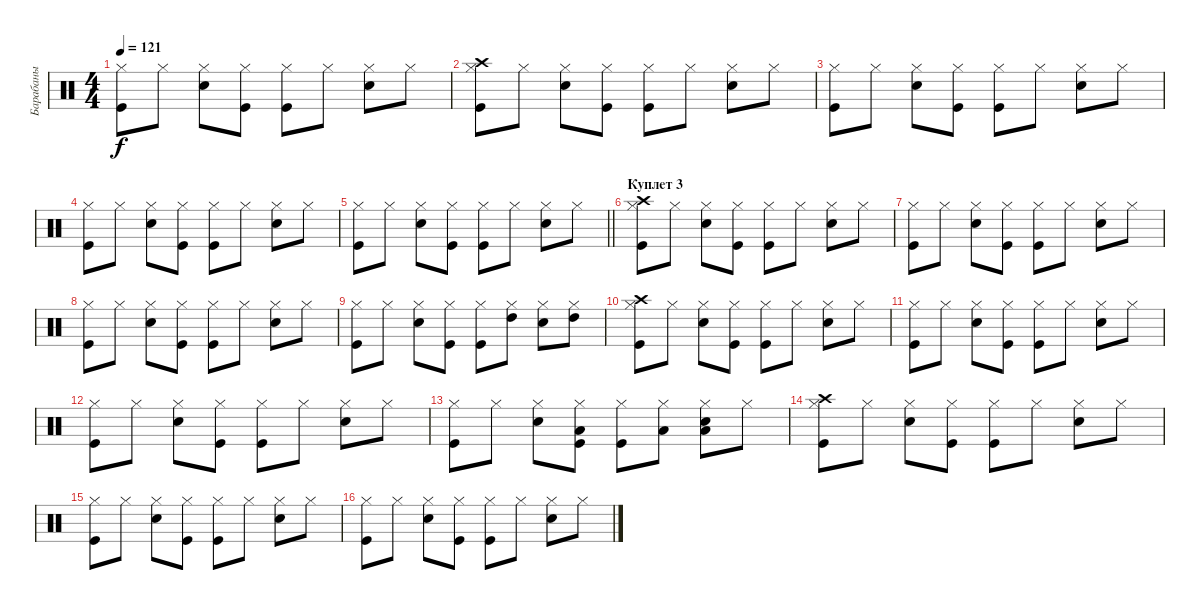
\track ("Барабаны" "Барабаны") {instrument percussion}
\staff {score}
\articulation defaults
\ts (4 4)
\tempo 121
\clef neutral
\ks c
("Kick (hit)" "Hi-Hat (closed)").8{dy f} "Hi-Hat (closed)".8 ("Snare (hit) 2" "Hi-Hat (closed)").8 ("Kick (hit)" "Hi-Hat (closed)").8 ("Kick (hit)" "Hi-Hat (closed)").8 "Hi-Hat (closed)".8 ("Snare (hit) 2" "Hi-Hat (closed)").8 "Hi-Hat (closed)".8 |
("Kick (hit)" "Hi-Hat (closed)" "Crash high (hit)").8 "Hi-Hat (closed)".8 ("Snare (hit) 2" "Hi-Hat (closed)").8 ("Kick (hit)" "Hi-Hat (closed)").8 ("Kick (hit)" "Hi-Hat (closed)").8 "Hi-Hat (closed)".8 ("Snare (hit) 2" "Hi-Hat (closed)").8 "Hi-Hat (closed)".8 |
("Kick (hit)" "Hi-Hat (closed)").8 "Hi-Hat (closed)".8 ("Snare (hit) 2" "Hi-Hat (closed)").8 ("Kick (hit)" "Hi-Hat (closed)").8 ("Kick (hit)" "Hi-Hat (closed)").8 "Hi-Hat (closed)".8 ("Snare (hit) 2" "Hi-Hat (closed)").8 "Hi-Hat (closed)".8 |
("Kick (hit)" "Hi-Hat (closed)").8 "Hi-Hat (closed)".8 ("Snare (hit) 2" "Hi-Hat (closed)").8 ("Kick (hit)" "Hi-Hat (closed)").8 ("Kick (hit)" "Hi-Hat (closed)").8 "Hi-Hat (closed)".8 ("Snare (hit) 2" "Hi-Hat (closed)").8 "Hi-Hat (closed)".8 |
\barLineRight lightlight
("Kick (hit)" "Hi-Hat (closed)").8 "Hi-Hat (closed)".8 ("Snare (hit) 2" "Hi-Hat (closed)").8 ("Kick (hit)" "Hi-Hat (closed)").8 ("Kick (hit)" "Hi-Hat (closed)").8 "Hi-Hat (closed)".8 ("Snare (hit) 2" "Hi-Hat (closed)").8 "Hi-Hat (closed)".8 |
\section ("" "Куплет 3")
("Kick (hit)" "Hi-Hat (closed)" "Crash high (hit)").8 "Hi-Hat (closed)".8 ("Snare (hit) 2" "Hi-Hat (closed)").8 ("Kick (hit)" "Hi-Hat (closed)").8 ("Kick (hit)" "Hi-Hat (closed)").8 "Hi-Hat (closed)".8 ("Snare (hit) 2" "Hi-Hat (closed)").8 "Hi-Hat (closed)".8 |
("Kick (hit)" "Hi-Hat (closed)").8 "Hi-Hat (closed)".8 ("Snare (hit) 2" "Hi-Hat (closed)").8 ("Kick (hit)" "Hi-Hat (closed)").8 ("Kick (hit)" "Hi-Hat (closed)").8 "Hi-Hat (closed)".8 ("Snare (hit) 2" "Hi-Hat (closed)").8 "Hi-Hat (closed)".8 |
("Kick (hit)" "Hi-Hat (closed)").8 "Hi-Hat (closed)".8 ("Snare (hit) 2" "Hi-Hat (closed)").8 ("Kick (hit)" "Hi-Hat (closed)").8 ("Kick (hit)" "Hi-Hat (closed)").8 "Hi-Hat (closed)".8 ("Snare (hit) 2" "Hi-Hat (closed)").8 "Hi-Hat (closed)".8 |
("Kick (hit)" "Hi-Hat (closed)").8 "Hi-Hat (closed)".8 ("Snare (hit) 2" "Hi-Hat (closed)").8 ("Kick (hit)" "Hi-Hat (closed)").8 ("Kick (hit)" "Hi-Hat (closed)").8 ("Hi-Hat (closed)" "High Tom (hit)").8 ("Snare (hit) 2" "Hi-Hat (closed)").8 ("Hi-Hat (closed)" "High Tom (hit)").8 |
("Kick (hit)" "Hi-Hat (closed)" "Crash high (hit)").8 "Hi-Hat (closed)".8 ("Snare (hit) 2" "Hi-Hat (closed)").8 ("Kick (hit)" "Hi-Hat (closed)").8 ("Kick (hit)" "Hi-Hat (closed)").8 "Hi-Hat (closed)".8 ("Snare (hit) 2" "Hi-Hat (closed)").8 "Hi-Hat (closed)".8 |
("Kick (hit)" "Hi-Hat (closed)").8 "Hi-Hat (closed)".8 ("Snare (hit) 2" "Hi-Hat (closed)").8 ("Kick (hit)" "Hi-Hat (closed)").8 ("Kick (hit)" "Hi-Hat (closed)").8 "Hi-Hat (closed)".8 ("Snare (hit) 2" "Hi-Hat (closed)").8 "Hi-Hat (closed)".8 |
("Kick (hit)" "Hi-Hat (closed)").8 "Hi-Hat (closed)".8 ("Snare (hit) 2" "Hi-Hat (closed)").8 ("Kick (hit)" "Hi-Hat (closed)").8 ("Kick (hit)" "Hi-Hat (closed)").8 "Hi-Hat (closed)".8 ("Snare (hit) 2" "Hi-Hat (closed)").8 "Hi-Hat (closed)".8 |
("Kick (hit)" "Hi-Hat (closed)").8 "Hi-Hat (closed)".8 ("Snare (hit) 2" "Hi-Hat (closed)").8 ("Kick (hit)" "Hi-Hat (closed)" "Low Tom (hit)").8 ("Kick (hit)" "Hi-Hat (closed)").8 ("Hi-Hat (closed)" "Low Tom (hit)").8 ("Snare (hit) 2" "Hi-Hat (closed)" "Low Tom (hit)").8 "Hi-Hat (closed)".8 |
("Kick (hit)" "Hi-Hat (closed)" "Crash high (hit)").8 "Hi-Hat (closed)".8 ("Snare (hit) 2" "Hi-Hat (closed)").8 ("Kick (hit)" "Hi-Hat (closed)").8 ("Kick (hit)" "Hi-Hat (closed)").8 "Hi-Hat (closed)".8 ("Snare (hit) 2" "Hi-Hat (closed)").8 "Hi-Hat (closed)".8 |
("Kick (hit)" "Hi-Hat (closed)").8 "Hi-Hat (closed)".8 ("Snare (hit) 2" "Hi-Hat (closed)").8 ("Kick (hit)" "Hi-Hat (closed)").8 ("Kick (hit)" "Hi-Hat (closed)").8 "Hi-Hat (closed)".8 ("Snare (hit) 2" "Hi-Hat (closed)").8 "Hi-Hat (closed)".8 |
("Kick (hit)" "Hi-Hat (closed)").8 "Hi-Hat (closed)".8 ("Snare (hit) 2" "Hi-Hat (closed)").8 ("Kick (hit)" "Hi-Hat (closed)").8 ("Kick (hit)" "Hi-Hat (closed)").8 "Hi-Hat (closed)".8 ("Snare (hit) 2" "Hi-Hat (closed)").8 "Hi-Hat (closed)".8
